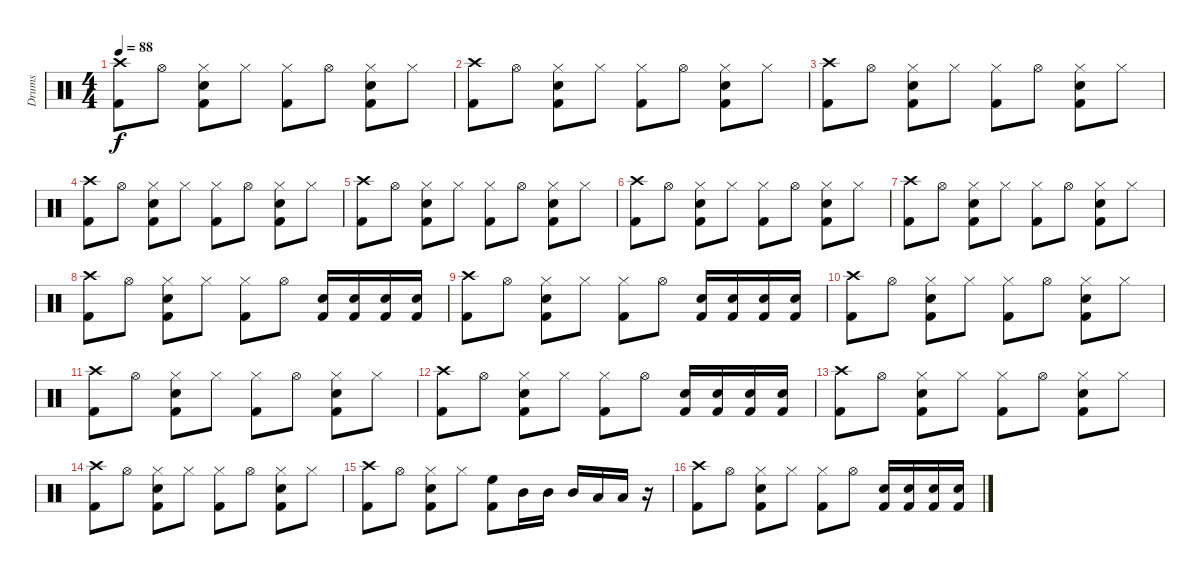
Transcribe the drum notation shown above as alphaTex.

\track ("Drums" "Drums") {instrument percussion}
\staff {score}
\articulation defaults
\ts (4 4)
\tempo 88
\clef neutral
\ks c
("Crash high (hit)" "Kick (hit) 2").8{dy f} "Hi-Hat (open)".8 ("Hi-Hat (closed)" "Snare (hit) 2" "Kick (hit) 2").8 "Hi-Hat (closed)".8 ("Hi-Hat (closed)" "Kick (hit) 2").8 "Hi-Hat (open)".8 ("Hi-Hat (closed)" "Snare (hit) 2" "Kick (hit) 2").8 "Hi-Hat (closed)".8 |
("Crash high (hit)" "Kick (hit) 2").8 "Hi-Hat (open)".8 ("Hi-Hat (closed)" "Snare (hit) 2" "Kick (hit) 2").8 "Hi-Hat (closed)".8 ("Hi-Hat (closed)" "Kick (hit) 2").8 "Hi-Hat (open)".8 ("Hi-Hat (closed)" "Snare (hit) 2" "Kick (hit) 2").8 "Hi-Hat (closed)".8 |
("Crash high (hit)" "Kick (hit) 2").8 "Hi-Hat (open)".8 ("Hi-Hat (closed)" "Snare (hit) 2" "Kick (hit) 2").8 "Hi-Hat (closed)".8 ("Hi-Hat (closed)" "Kick (hit) 2").8 "Hi-Hat (open)".8 ("Hi-Hat (closed)" "Snare (hit) 2" "Kick (hit) 2").8 "Hi-Hat (closed)".8 |
("Crash high (hit)" "Kick (hit) 2").8 "Hi-Hat (open)".8 ("Hi-Hat (closed)" "Snare (hit) 2" "Kick (hit) 2").8 "Hi-Hat (closed)".8 ("Hi-Hat (closed)" "Kick (hit) 2").8 "Hi-Hat (open)".8 ("Hi-Hat (closed)" "Snare (hit) 2" "Kick (hit) 2").8 "Hi-Hat (closed)".8 |
("Crash high (hit)" "Kick (hit) 2").8 "Hi-Hat (open)".8 ("Hi-Hat (closed)" "Snare (hit) 2" "Kick (hit) 2").8 "Hi-Hat (closed)".8 ("Hi-Hat (closed)" "Kick (hit) 2").8 "Hi-Hat (open)".8 ("Hi-Hat (closed)" "Snare (hit) 2" "Kick (hit) 2").8 "Hi-Hat (closed)".8 |
("Crash high (hit)" "Kick (hit) 2").8 "Hi-Hat (open)".8 ("Hi-Hat (closed)" "Snare (hit) 2" "Kick (hit) 2").8 "Hi-Hat (closed)".8 ("Hi-Hat (closed)" "Kick (hit) 2").8 "Hi-Hat (open)".8 ("Hi-Hat (closed)" "Snare (hit) 2" "Kick (hit) 2").8 "Hi-Hat (closed)".8 |
("Crash high (hit)" "Kick (hit) 2").8 "Hi-Hat (open)".8 ("Hi-Hat (closed)" "Snare (hit) 2" "Kick (hit) 2").8 "Hi-Hat (closed)".8 ("Hi-Hat (closed)" "Kick (hit) 2").8 "Hi-Hat (open)".8 ("Hi-Hat (closed)" "Snare (hit) 2" "Kick (hit) 2").8 "Hi-Hat (closed)".8 |
("Crash high (hit)" "Kick (hit) 2").8 "Hi-Hat (open)".8 ("Hi-Hat (closed)" "Snare (hit) 2" "Kick (hit) 2").8 "Hi-Hat (closed)".8 ("Hi-Hat (closed)" "Kick (hit) 2").8 "Hi-Hat (open)".8 ("Snare (hit) 2" "Kick (hit) 2").16 ("Snare (hit) 2" "Kick (hit) 2").16 ("Snare (hit) 2" "Kick (hit) 2").16 ("Snare (hit) 2" "Kick (hit) 2").16 |
("Crash high (hit)" "Kick (hit) 2").8 "Hi-Hat (open)".8 ("Hi-Hat (closed)" "Snare (hit) 2" "Kick (hit) 2").8 "Hi-Hat (closed)".8 ("Hi-Hat (closed)" "Kick (hit) 2").8 "Hi-Hat (open)".8 ("Snare (hit) 2" "Kick (hit) 2").16 ("Snare (hit) 2" "Kick (hit) 2").16 ("Snare (hit) 2" "Kick (hit) 2").16 ("Snare (hit) 2" "Kick (hit) 2").16 |
("Crash high (hit)" "Kick (hit) 2").8 "Hi-Hat (open)".8 ("Hi-Hat (closed)" "Snare (hit) 2" "Kick (hit) 2").8 "Hi-Hat (closed)".8 ("Hi-Hat (closed)" "Kick (hit) 2").8 "Hi-Hat (open)".8 ("Hi-Hat (closed)" "Snare (hit) 2" "Kick (hit) 2").8 "Hi-Hat (closed)".8 |
("Crash high (hit)" "Kick (hit) 2").8 "Hi-Hat (open)".8 ("Hi-Hat (closed)" "Snare (hit) 2" "Kick (hit) 2").8 "Hi-Hat (closed)".8 ("Hi-Hat (closed)" "Kick (hit) 2").8 "Hi-Hat (open)".8 ("Hi-Hat (closed)" "Snare (hit) 2" "Kick (hit) 2").8 "Hi-Hat (closed)".8 |
("Crash high (hit)" "Kick (hit) 2").8 "Hi-Hat (open)".8 ("Hi-Hat (closed)" "Snare (hit) 2" "Kick (hit) 2").8 "Hi-Hat (closed)".8 ("Hi-Hat (closed)" "Kick (hit) 2").8 "Hi-Hat (open)".8 ("Snare (hit) 2" "Kick (hit) 2").16 ("Snare (hit) 2" "Kick (hit) 2").16 ("Snare (hit) 2" "Kick (hit) 2").16 ("Snare (hit) 2" "Kick (hit) 2").16 |
("Crash high (hit)" "Kick (hit) 2").8 "Hi-Hat (open)".8 ("Hi-Hat (closed)" "Snare (hit) 2" "Kick (hit) 2").8 "Hi-Hat (closed)".8 ("Hi-Hat (closed)" "Kick (hit) 2").8 "Hi-Hat (open)".8 ("Hi-Hat (closed)" "Snare (hit) 2" "Kick (hit) 2").8 "Hi-Hat (closed)".8 |
("Crash high (hit)" "Kick (hit) 2").8 "Hi-Hat (open)".8 ("Hi-Hat (closed)" "Snare (hit) 2" "Kick (hit) 2").8 "Hi-Hat (closed)".8 ("Hi-Hat (closed)" "Kick (hit) 2").8 "Hi-Hat (open)".8 ("Hi-Hat (closed)" "Snare (hit) 2" "Kick (hit) 2").8 "Hi-Hat (closed)".8 |
("Crash high (hit)" "Kick (hit) 2").8 "Hi-Hat (open)".8 ("Hi-Hat (closed)" "Snare (hit) 2" "Kick (hit) 2").8 "Hi-Hat (closed)".8 ("High Floor Tom (hit)" "Kick (hit) 2").8 "Mid Tom (hit)".16 "Mid Tom (hit)".16 "Mid Tom (hit)".16 "Low Tom (hit)".16 "Low Tom (hit)".16 r.16 |
("Crash high (hit)" "Kick (hit) 2").8 "Hi-Hat (open)".8 ("Hi-Hat (closed)" "Snare (hit) 2" "Kick (hit) 2").8 "Hi-Hat (closed)".8 ("Hi-Hat (closed)" "Kick (hit) 2").8 "Hi-Hat (open)".8 ("Snare (hit) 2" "Kick (hit) 2").16 ("Snare (hit) 2" "Kick (hit) 2").16 ("Snare (hit) 2" "Kick (hit) 2").16 ("Snare (hit) 2" "Kick (hit) 2").16
